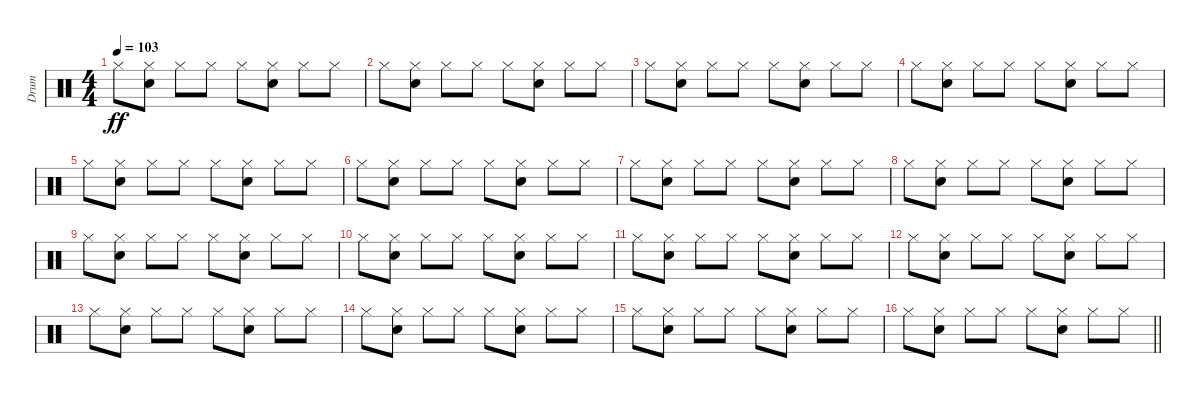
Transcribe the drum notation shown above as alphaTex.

\track ("Drum" "Drum") {instrument percussion}
\staff {score}
\articulation defaults
\ts (4 4)
\tempo 103
\clef neutral
\ks c "Hi-Hat (closed)".8{dy ff}
("Hi-Hat (closed)" "Electric Snare (hit)").8 "Hi-Hat (closed)".8 "Hi-Hat (closed)".8 "Hi-Hat (closed)".8 ("Hi-Hat (closed)" "Electric Snare (hit)").8 "Hi-Hat (closed)".8 "Hi-Hat (closed)".8 |
"Hi-Hat (closed)".8 ("Hi-Hat (closed)" "Electric Snare (hit)").8 "Hi-Hat (closed)".8 "Hi-Hat (closed)".8 "Hi-Hat (closed)".8 ("Hi-Hat (closed)" "Electric Snare (hit)").8 "Hi-Hat (closed)".8 "Hi-Hat (closed)".8 |
"Hi-Hat (closed)".8 ("Hi-Hat (closed)" "Electric Snare (hit)").8 "Hi-Hat (closed)".8 "Hi-Hat (closed)".8 "Hi-Hat (closed)".8 ("Hi-Hat (closed)" "Electric Snare (hit)").8 "Hi-Hat (closed)".8 "Hi-Hat (closed)".8 |
"Hi-Hat (closed)".8 ("Hi-Hat (closed)" "Electric Snare (hit)").8 "Hi-Hat (closed)".8 "Hi-Hat (closed)".8 "Hi-Hat (closed)".8 ("Hi-Hat (closed)" "Electric Snare (hit)").8 "Hi-Hat (closed)".8 "Hi-Hat (closed)".8 |
"Hi-Hat (closed)".8 ("Hi-Hat (closed)" "Electric Snare (hit)").8 "Hi-Hat (closed)".8 "Hi-Hat (closed)".8 "Hi-Hat (closed)".8 ("Hi-Hat (closed)" "Electric Snare (hit)").8 "Hi-Hat (closed)".8 "Hi-Hat (closed)".8 |
"Hi-Hat (closed)".8 ("Hi-Hat (closed)" "Electric Snare (hit)").8 "Hi-Hat (closed)".8 "Hi-Hat (closed)".8 "Hi-Hat (closed)".8 ("Hi-Hat (closed)" "Electric Snare (hit)").8 "Hi-Hat (closed)".8 "Hi-Hat (closed)".8 |
"Hi-Hat (closed)".8 ("Hi-Hat (closed)" "Electric Snare (hit)").8 "Hi-Hat (closed)".8 "Hi-Hat (closed)".8 "Hi-Hat (closed)".8 ("Hi-Hat (closed)" "Electric Snare (hit)").8 "Hi-Hat (closed)".8 "Hi-Hat (closed)".8 |
"Hi-Hat (closed)".8 ("Hi-Hat (closed)" "Electric Snare (hit)").8 "Hi-Hat (closed)".8 "Hi-Hat (closed)".8 "Hi-Hat (closed)".8 ("Hi-Hat (closed)" "Electric Snare (hit)").8 "Hi-Hat (closed)".8 "Hi-Hat (closed)".8 |
"Hi-Hat (closed)".8 ("Hi-Hat (closed)" "Electric Snare (hit)").8 "Hi-Hat (closed)".8 "Hi-Hat (closed)".8 "Hi-Hat (closed)".8 ("Hi-Hat (closed)" "Electric Snare (hit)").8 "Hi-Hat (closed)".8 "Hi-Hat (closed)".8 |
"Hi-Hat (closed)".8 ("Hi-Hat (closed)" "Electric Snare (hit)").8 "Hi-Hat (closed)".8 "Hi-Hat (closed)".8 "Hi-Hat (closed)".8 ("Hi-Hat (closed)" "Electric Snare (hit)").8 "Hi-Hat (closed)".8 "Hi-Hat (closed)".8 |
"Hi-Hat (closed)".8 ("Hi-Hat (closed)" "Electric Snare (hit)").8 "Hi-Hat (closed)".8 "Hi-Hat (closed)".8 "Hi-Hat (closed)".8 ("Hi-Hat (closed)" "Electric Snare (hit)").8 "Hi-Hat (closed)".8 "Hi-Hat (closed)".8 |
"Hi-Hat (closed)".8 ("Hi-Hat (closed)" "Electric Snare (hit)").8 "Hi-Hat (closed)".8 "Hi-Hat (closed)".8 "Hi-Hat (closed)".8 ("Hi-Hat (closed)" "Electric Snare (hit)").8 "Hi-Hat (closed)".8 "Hi-Hat (closed)".8 |
"Hi-Hat (closed)".8 ("Hi-Hat (closed)" "Electric Snare (hit)").8 "Hi-Hat (closed)".8 "Hi-Hat (closed)".8 "Hi-Hat (closed)".8 ("Hi-Hat (closed)" "Electric Snare (hit)").8 "Hi-Hat (closed)".8 "Hi-Hat (closed)".8 |
"Hi-Hat (closed)".8 ("Hi-Hat (closed)" "Electric Snare (hit)").8 "Hi-Hat (closed)".8 "Hi-Hat (closed)".8 "Hi-Hat (closed)".8 ("Hi-Hat (closed)" "Electric Snare (hit)").8 "Hi-Hat (closed)".8 "Hi-Hat (closed)".8 |
"Hi-Hat (closed)".8 ("Hi-Hat (closed)" "Electric Snare (hit)").8 "Hi-Hat (closed)".8 "Hi-Hat (closed)".8 "Hi-Hat (closed)".8 ("Hi-Hat (closed)" "Electric Snare (hit)").8 "Hi-Hat (closed)".8 "Hi-Hat (closed)".8 |
\barLineRight lightlight "Hi-Hat (closed)".8
("Hi-Hat (closed)" "Electric Snare (hit)").8 "Hi-Hat (closed)".8 "Hi-Hat (closed)".8 "Hi-Hat (closed)".8 ("Hi-Hat (closed)" "Electric Snare (hit)").8 "Hi-Hat (closed)".8 "Hi-Hat (closed)".8
